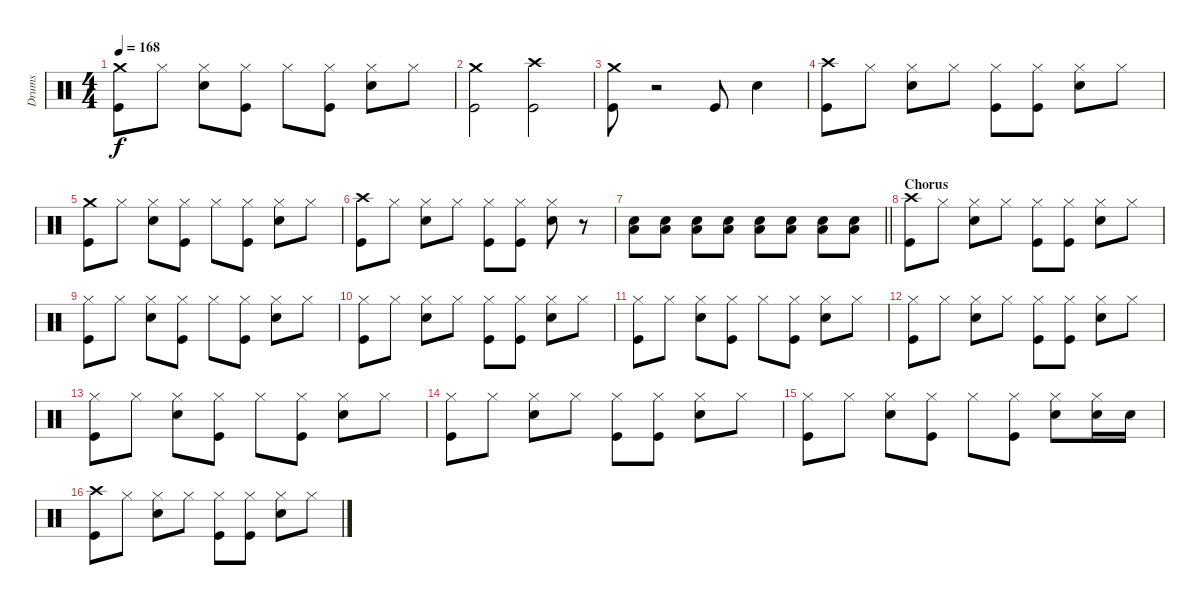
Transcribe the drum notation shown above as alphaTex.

\track ("Drums" "Drums") {instrument percussion}
\staff {score}
\articulation defaults
\ts (4 4)
\tempo 168
\clef neutral
\ks c
("Crash medium (hit)" "Kick (hit)").8{dy f} "Hi-Hat (closed)".8 ("Hi-Hat (closed)" "Snare (hit) 2").8 ("Hi-Hat (closed)" "Kick (hit)").8 "Hi-Hat (closed)".8 ("Hi-Hat (closed)" "Kick (hit)").8 ("Hi-Hat (closed)" "Snare (hit) 2").8 "Hi-Hat (closed)".8 |
("Crash medium (hit)" "Kick (hit)").2 ("Crash high (hit)" "Kick (hit)").2 |
("Crash medium (hit)" "Kick (hit)").8 r.2 "Kick (hit)".8 "Snare (hit) 2".4 |
("Crash high (hit)" "Kick (hit)").8 "Hi-Hat (closed)".8 ("Hi-Hat (closed)" "Snare (hit) 2").8 "Hi-Hat (closed)".8 ("Hi-Hat (closed)" "Kick (hit)").8 ("Hi-Hat (closed)" "Kick (hit)").8 ("Hi-Hat (closed)" "Snare (hit) 2").8 "Hi-Hat (closed)".8 |
("Crash medium (hit)" "Kick (hit)").8 "Hi-Hat (closed)".8 ("Hi-Hat (closed)" "Snare (hit) 2").8 ("Hi-Hat (closed)" "Kick (hit)").8 "Hi-Hat (closed)".8 ("Hi-Hat (closed)" "Kick (hit)").8 ("Hi-Hat (closed)" "Snare (hit) 2").8 "Hi-Hat (closed)".8 |
("Crash high (hit)" "Kick (hit)").8 "Hi-Hat (closed)".8 ("Hi-Hat (closed)" "Snare (hit) 2").8 "Hi-Hat (closed)".8 ("Hi-Hat (closed)" "Kick (hit)").8 ("Hi-Hat (closed)" "Kick (hit)").8 ("Hi-Hat (closed)" "Snare (hit) 2").8 r.8{volume 6} |
\barLineRight lightlight
("Low Floor Tom (hit)" "Snare (hit) 2").8{volume 13} ("Low Floor Tom (hit)" "Snare (hit) 2").8 ("Low Floor Tom (hit)" "Snare (hit) 2").8 ("Low Floor Tom (hit)" "Snare (hit) 2").8 ("Low Floor Tom (hit)" "Snare (hit) 2").8 ("Low Floor Tom (hit)" "Snare (hit) 2").8 ("Low Floor Tom (hit)" "Snare (hit) 2").8 ("Low Floor Tom (hit)" "Snare (hit) 2").8 |
\section ("" "Chorus")
("Crash high (hit)" "Kick (hit)").8 "Hi-Hat (closed)".8 ("Hi-Hat (closed)" "Snare (hit) 2").8 "Hi-Hat (closed)".8 ("Hi-Hat (closed)" "Kick (hit)").8 ("Hi-Hat (closed)" "Kick (hit)").8 ("Hi-Hat (closed)" "Snare (hit) 2").8 "Hi-Hat (closed)".8 |
("Hi-Hat (closed)" "Kick (hit)").8 "Hi-Hat (closed)".8 ("Hi-Hat (closed)" "Snare (hit) 2").8 ("Hi-Hat (closed)" "Kick (hit)").8 "Hi-Hat (closed)".8 ("Hi-Hat (closed)" "Kick (hit)").8 ("Hi-Hat (closed)" "Snare (hit) 2").8 "Hi-Hat (closed)".8 |
("Hi-Hat (closed)" "Kick (hit)").8 "Hi-Hat (closed)".8 ("Hi-Hat (closed)" "Snare (hit) 2").8 "Hi-Hat (closed)".8 ("Hi-Hat (closed)" "Kick (hit)").8 ("Hi-Hat (closed)" "Kick (hit)").8 ("Hi-Hat (closed)" "Snare (hit) 2").8 "Hi-Hat (closed)".8 |
("Hi-Hat (closed)" "Kick (hit)").8 "Hi-Hat (closed)".8 ("Hi-Hat (closed)" "Snare (hit) 2").8 ("Hi-Hat (closed)" "Kick (hit)").8 "Hi-Hat (closed)".8 ("Hi-Hat (closed)" "Kick (hit)").8 ("Hi-Hat (closed)" "Snare (hit) 2").8 "Hi-Hat (closed)".8 |
("Hi-Hat (closed)" "Kick (hit)").8 "Hi-Hat (closed)".8 ("Hi-Hat (closed)" "Snare (hit) 2").8 "Hi-Hat (closed)".8 ("Hi-Hat (closed)" "Kick (hit)").8 ("Hi-Hat (closed)" "Kick (hit)").8 ("Hi-Hat (closed)" "Snare (hit) 2").8 "Hi-Hat (closed)".8 |
("Hi-Hat (closed)" "Kick (hit)").8 "Hi-Hat (closed)".8 ("Hi-Hat (closed)" "Snare (hit) 2").8 ("Hi-Hat (closed)" "Kick (hit)").8 "Hi-Hat (closed)".8 ("Hi-Hat (closed)" "Kick (hit)").8 ("Hi-Hat (closed)" "Snare (hit) 2").8 "Hi-Hat (closed)".8 |
("Hi-Hat (closed)" "Kick (hit)").8 "Hi-Hat (closed)".8 ("Hi-Hat (closed)" "Snare (hit) 2").8 "Hi-Hat (closed)".8 ("Hi-Hat (closed)" "Kick (hit)").8 ("Hi-Hat (closed)" "Kick (hit)").8 ("Hi-Hat (closed)" "Snare (hit) 2").8 "Hi-Hat (closed)".8 |
("Hi-Hat (closed)" "Kick (hit)").8 "Hi-Hat (closed)".8 ("Hi-Hat (closed)" "Snare (hit) 2").8 ("Hi-Hat (closed)" "Kick (hit)").8 "Hi-Hat (closed)".8 ("Hi-Hat (closed)" "Kick (hit)").8 ("Hi-Hat (closed)" "Snare (hit) 2").8 ("Hi-Hat (closed)" "Snare (hit) 2").16 "Snare (hit) 2".16 |
("Crash high (hit)" "Kick (hit)").8 "Hi-Hat (closed)".8 ("Hi-Hat (closed)" "Snare (hit) 2").8 "Hi-Hat (closed)".8 ("Hi-Hat (closed)" "Kick (hit)").8 ("Hi-Hat (closed)" "Kick (hit)").8 ("Hi-Hat (closed)" "Snare (hit) 2").8 "Hi-Hat (closed)".8
